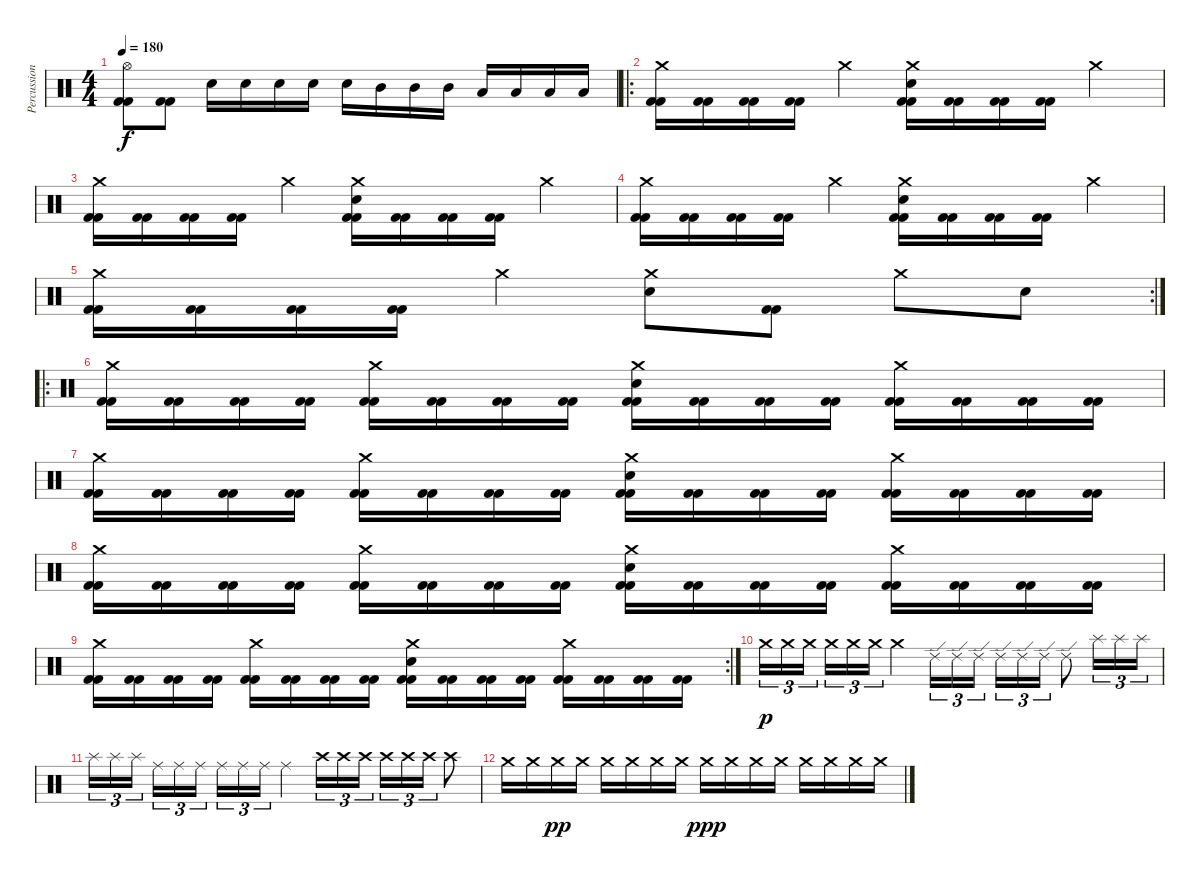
\track ("Percussion" "Percussion") {instrument percussion}
\staff {score}
\articulation defaults
\ts (4 4)
\tempo 180
\clef neutral
\ks c
("Kick (hit) 2" "Kick (hit) 2" "Hi-Hat (open)").8{dy f} ("Kick (hit) 2" "Kick (hit) 2").8 "Electric Snare (hit)".16 "Electric Snare (hit)".16 "Electric Snare (hit)".16 "Electric Snare (hit)".16 "Electric Snare (hit)".16 "Mid Tom (hit)".16 "Mid Tom (hit)".16 "Mid Tom (hit)".16 "Low Tom (hit)".16 "Low Tom (hit)".16 "Low Tom (hit)".16 "Low Tom (hit)".16 |
\ro
("Kick (hit) 2" "Kick (hit) 2" "Crash medium (hit)").16 ("Kick (hit) 2" "Kick (hit) 2").16 ("Kick (hit) 2" "Kick (hit) 2").16 ("Kick (hit) 2" "Kick (hit) 2").16 "Crash medium (hit)".4 ("Crash medium (hit)" "Kick (hit) 2" "Kick (hit) 2" "Electric Snare (hit)").16 ("Kick (hit) 2" "Kick (hit) 2").16 ("Kick (hit) 2" "Kick (hit) 2").16 ("Kick (hit) 2" "Kick (hit) 2").16 "Crash medium (hit)".4 |
("Kick (hit) 2" "Kick (hit) 2" "Crash medium (hit)").16 ("Kick (hit) 2" "Kick (hit) 2").16 ("Kick (hit) 2" "Kick (hit) 2").16 ("Kick (hit) 2" "Kick (hit) 2").16 "Crash medium (hit)".4 ("Crash medium (hit)" "Kick (hit) 2" "Kick (hit) 2" "Electric Snare (hit)").16 ("Kick (hit) 2" "Kick (hit) 2").16 ("Kick (hit) 2" "Kick (hit) 2").16 ("Kick (hit) 2" "Kick (hit) 2").16 "Crash medium (hit)".4 |
("Kick (hit) 2" "Kick (hit) 2" "Crash medium (hit)").16 ("Kick (hit) 2" "Kick (hit) 2").16 ("Kick (hit) 2" "Kick (hit) 2").16 ("Kick (hit) 2" "Kick (hit) 2").16 "Crash medium (hit)".4 ("Crash medium (hit)" "Kick (hit) 2" "Kick (hit) 2" "Electric Snare (hit)").16 ("Kick (hit) 2" "Kick (hit) 2").16 ("Kick (hit) 2" "Kick (hit) 2").16 ("Kick (hit) 2" "Kick (hit) 2").16 "Crash medium (hit)".4 |
\rc 2
("Kick (hit) 2" "Kick (hit) 2" "Crash medium (hit)").16 ("Kick (hit) 2" "Kick (hit) 2").16 ("Kick (hit) 2" "Kick (hit) 2").16 ("Kick (hit) 2" "Kick (hit) 2").16 "Crash medium (hit)".4 ("Crash medium (hit)" "Electric Snare (hit)").8 ("Kick (hit) 2" "Kick (hit) 2").8 "Crash medium (hit)".8 "Electric Snare (hit)".8 |
\ro
("Kick (hit) 2" "Kick (hit) 2" "Crash medium (hit)").16 ("Kick (hit) 2" "Kick (hit) 2").16 ("Kick (hit) 2" "Kick (hit) 2").16 ("Kick (hit) 2" "Kick (hit) 2").16 ("Crash medium (hit)" "Kick (hit) 2" "Kick (hit) 2").16 ("Kick (hit) 2" "Kick (hit) 2").16 ("Kick (hit) 2" "Kick (hit) 2").16 ("Kick (hit) 2" "Kick (hit) 2").16 ("Crash medium (hit)" "Kick (hit) 2" "Kick (hit) 2" "Electric Snare (hit)").16 ("Kick (hit) 2" "Kick (hit) 2").16 ("Kick (hit) 2" "Kick (hit) 2").16 ("Kick (hit) 2" "Kick (hit) 2").16 ("Crash medium (hit)" "Kick (hit) 2" "Kick (hit) 2").16 ("Kick (hit) 2" "Kick (hit) 2").16 ("Kick (hit) 2" "Kick (hit) 2").16 ("Kick (hit) 2" "Kick (hit) 2").16 |
("Kick (hit) 2" "Kick (hit) 2" "Crash medium (hit)").16 ("Kick (hit) 2" "Kick (hit) 2").16 ("Kick (hit) 2" "Kick (hit) 2").16 ("Kick (hit) 2" "Kick (hit) 2").16 ("Crash medium (hit)" "Kick (hit) 2" "Kick (hit) 2").16 ("Kick (hit) 2" "Kick (hit) 2").16 ("Kick (hit) 2" "Kick (hit) 2").16 ("Kick (hit) 2" "Kick (hit) 2").16 ("Crash medium (hit)" "Kick (hit) 2" "Kick (hit) 2" "Electric Snare (hit)").16 ("Kick (hit) 2" "Kick (hit) 2").16 ("Kick (hit) 2" "Kick (hit) 2").16 ("Kick (hit) 2" "Kick (hit) 2").16 ("Crash medium (hit)" "Kick (hit) 2" "Kick (hit) 2").16 ("Kick (hit) 2" "Kick (hit) 2").16 ("Kick (hit) 2" "Kick (hit) 2").16 ("Kick (hit) 2" "Kick (hit) 2").16 |
("Kick (hit) 2" "Kick (hit) 2" "Crash medium (hit)").16 ("Kick (hit) 2" "Kick (hit) 2").16 ("Kick (hit) 2" "Kick (hit) 2").16 ("Kick (hit) 2" "Kick (hit) 2").16 ("Crash medium (hit)" "Kick (hit) 2" "Kick (hit) 2").16 ("Kick (hit) 2" "Kick (hit) 2").16 ("Kick (hit) 2" "Kick (hit) 2").16 ("Kick (hit) 2" "Kick (hit) 2").16 ("Crash medium (hit)" "Kick (hit) 2" "Kick (hit) 2" "Electric Snare (hit)").16 ("Kick (hit) 2" "Kick (hit) 2").16 ("Kick (hit) 2" "Kick (hit) 2").16 ("Kick (hit) 2" "Kick (hit) 2").16 ("Crash medium (hit)" "Kick (hit) 2" "Kick (hit) 2").16 ("Kick (hit) 2" "Kick (hit) 2").16 ("Kick (hit) 2" "Kick (hit) 2").16 ("Kick (hit) 2" "Kick (hit) 2").16 |
\rc 2
("Kick (hit) 2" "Kick (hit) 2" "Crash medium (hit)").16 ("Kick (hit) 2" "Kick (hit) 2").16 ("Kick (hit) 2" "Kick (hit) 2").16 ("Kick (hit) 2" "Kick (hit) 2").16 ("Crash medium (hit)" "Kick (hit) 2" "Kick (hit) 2").16 ("Kick (hit) 2" "Kick (hit) 2").16 ("Kick (hit) 2" "Kick (hit) 2").16 ("Kick (hit) 2" "Kick (hit) 2").16 ("Crash medium (hit)" "Kick (hit) 2" "Kick (hit) 2" "Electric Snare (hit)").16 ("Kick (hit) 2" "Kick (hit) 2").16 ("Kick (hit) 2" "Kick (hit) 2").16 ("Kick (hit) 2" "Kick (hit) 2").16 ("Crash medium (hit)" "Kick (hit) 2" "Kick (hit) 2").16 ("Kick (hit) 2" "Kick (hit) 2").16 ("Kick (hit) 2" "Kick (hit) 2").16 ("Kick (hit) 2" "Kick (hit) 2").16 |
"Crash medium (hit)".16{tu (3 2) dy p} "Crash medium (hit)".16{tu (3 2)} "Crash medium (hit)".16{tu (3 2)} "Crash medium (hit)".16{tu (3 2)} "Crash medium (hit)".16{tu (3 2)} "Crash medium (hit)".16{tu (3 2)} "Crash medium (hit)".4 "Ride (edge) 2".16{tu (3 2)} "Ride (edge) 2".16{tu (3 2)} "Ride (edge) 2".16{tu (3 2)} "Ride (edge) 2".16{tu (3 2)} "Ride (edge) 2".16{tu (3 2)} "Ride (edge) 2".16{tu (3 2)} "Ride (edge) 2".8 "Splash (hit)".16{tu (3 2)} "Splash (hit)".16{tu (3 2)} "Splash (hit)".16{tu (3 2)} |
"Splash (hit)".16{tu (3 2)} "Splash (hit)".16{tu (3 2)} "Splash (hit)".16{tu (3 2)} "Ride (middle)".16{tu (3 2)} "Ride (middle)".16{tu (3 2)} "Ride (middle)".16{tu (3 2)} "Ride (middle)".16{tu (3 2)} "Ride (middle)".16{tu (3 2)} "Ride (middle)".16{tu (3 2)} "Ride (middle)".4 "Crash high (hit)".16{tu (3 2)} "Crash high (hit)".16{tu (3 2)} "Crash high (hit)".16{tu (3 2)} "Crash high (hit)".16{tu (3 2)} "Crash high (hit)".16{tu (3 2)} "Crash high (hit)".16{tu (3 2)} "Crash high (hit)".8 |
"Crash medium (hit)".16 "Crash medium (hit)".16 "Crash medium (hit)".16{dy pp} "Crash medium (hit)".16 "Crash medium (hit)".16 "Crash medium (hit)".16 "Crash medium (hit)".16 "Crash medium (hit)".16 "Crash medium (hit)".16{dy ppp} "Crash medium (hit)".16 "Crash medium (hit)".16 "Crash medium (hit)".16 "Crash medium (hit)".16 "Crash medium (hit)".16 "Crash medium (hit)".16 "Crash medium (hit)".16
